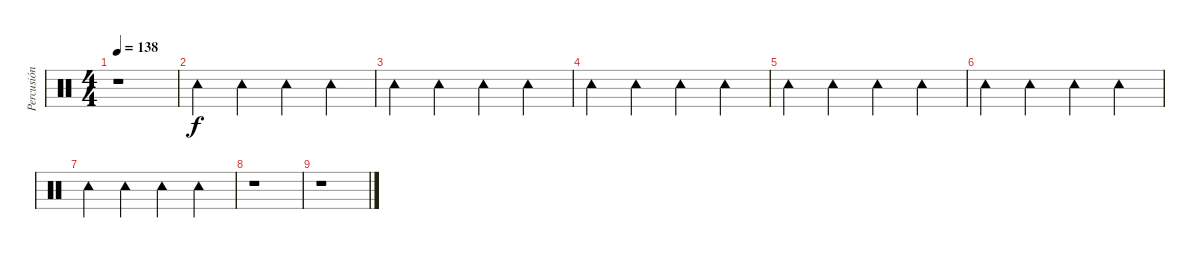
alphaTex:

\track ("Percusión" "Percusión") {instrument percussion}
\staff {score}
\articulation defaults
\ts (4 4)
\tempo 138
\clef neutral
\ks c
r.1{dy f} |
"Tambourine (hit)".4 "Tambourine (hit)".4 "Tambourine (hit)".4 "Tambourine (hit)".4 |
"Tambourine (hit)".4 "Tambourine (hit)".4 "Tambourine (hit)".4 "Tambourine (hit)".4 |
"Tambourine (hit)".4 "Tambourine (hit)".4 "Tambourine (hit)".4 "Tambourine (hit)".4 |
"Tambourine (hit)".4 "Tambourine (hit)".4 "Tambourine (hit)".4 "Tambourine (hit)".4 |
"Tambourine (hit)".4 "Tambourine (hit)".4 "Tambourine (hit)".4 "Tambourine (hit)".4 |
"Tambourine (hit)".4 "Tambourine (hit)".4 "Tambourine (hit)".4 "Tambourine (hit)".4 |
r.1 |
r.1
